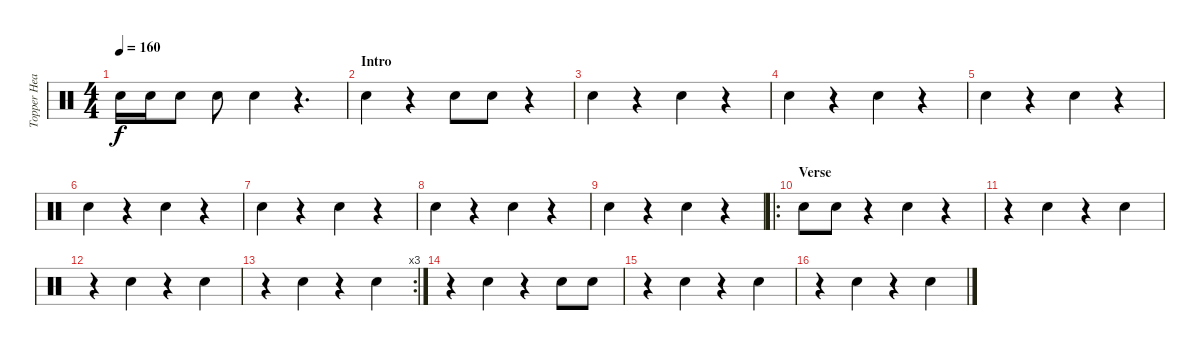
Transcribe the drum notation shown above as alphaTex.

\track ("Topper Headon" "Topper Hea") {instrument percussion}
\staff {score}
\articulation defaults
\ts (4 4)
\tempo 160
\clef neutral
\ks c "Electric Snare (hit)".16{dy f} "Electric Snare (hit)".16 "Electric Snare (hit)".8 "Electric Snare (hit)".8 "Electric Snare (hit)".4
r.4{d} |
\section ("" "Intro")
"Hand Clap (hit)".4 r.4 "Hand Clap (hit)".8 "Hand Clap (hit)".8 r.4 |
"Hand Clap (hit)".4 r.4 "Hand Clap (hit)".4 r.4 |
"Hand Clap (hit)".4 r.4 "Hand Clap (hit)".4 r.4 |
"Hand Clap (hit)".4 r.4 "Hand Clap (hit)".4 r.4 |
"Hand Clap (hit)".4 r.4 "Hand Clap (hit)".4 r.4 |
"Hand Clap (hit)".4 r.4 "Hand Clap (hit)".4 r.4 |
"Hand Clap (hit)".4 r.4 "Hand Clap (hit)".4 r.4 |
"Hand Clap (hit)".4 r.4 "Hand Clap (hit)".4 r.4 |
\ro
\section ("" "Verse")
"Hand Clap (hit)".8 "Hand Clap (hit)".8 r.4 "Hand Clap (hit)".4 r.4 |
r.4 "Hand Clap (hit)".4 r.4 "Hand Clap (hit)".4 |
r.4 "Hand Clap (hit)".4 r.4 "Hand Clap (hit)".4 |
\rc 3
r.4 "Hand Clap (hit)".4 r.4 "Hand Clap (hit)".4 |
r.4 "Hand Clap (hit)".4 r.4 "Hand Clap (hit)".8 "Hand Clap (hit)".8 |
r.4 "Hand Clap (hit)".4 r.4 "Hand Clap (hit)".4 |
r.4 "Hand Clap (hit)".4 r.4 "Hand Clap (hit)".4
